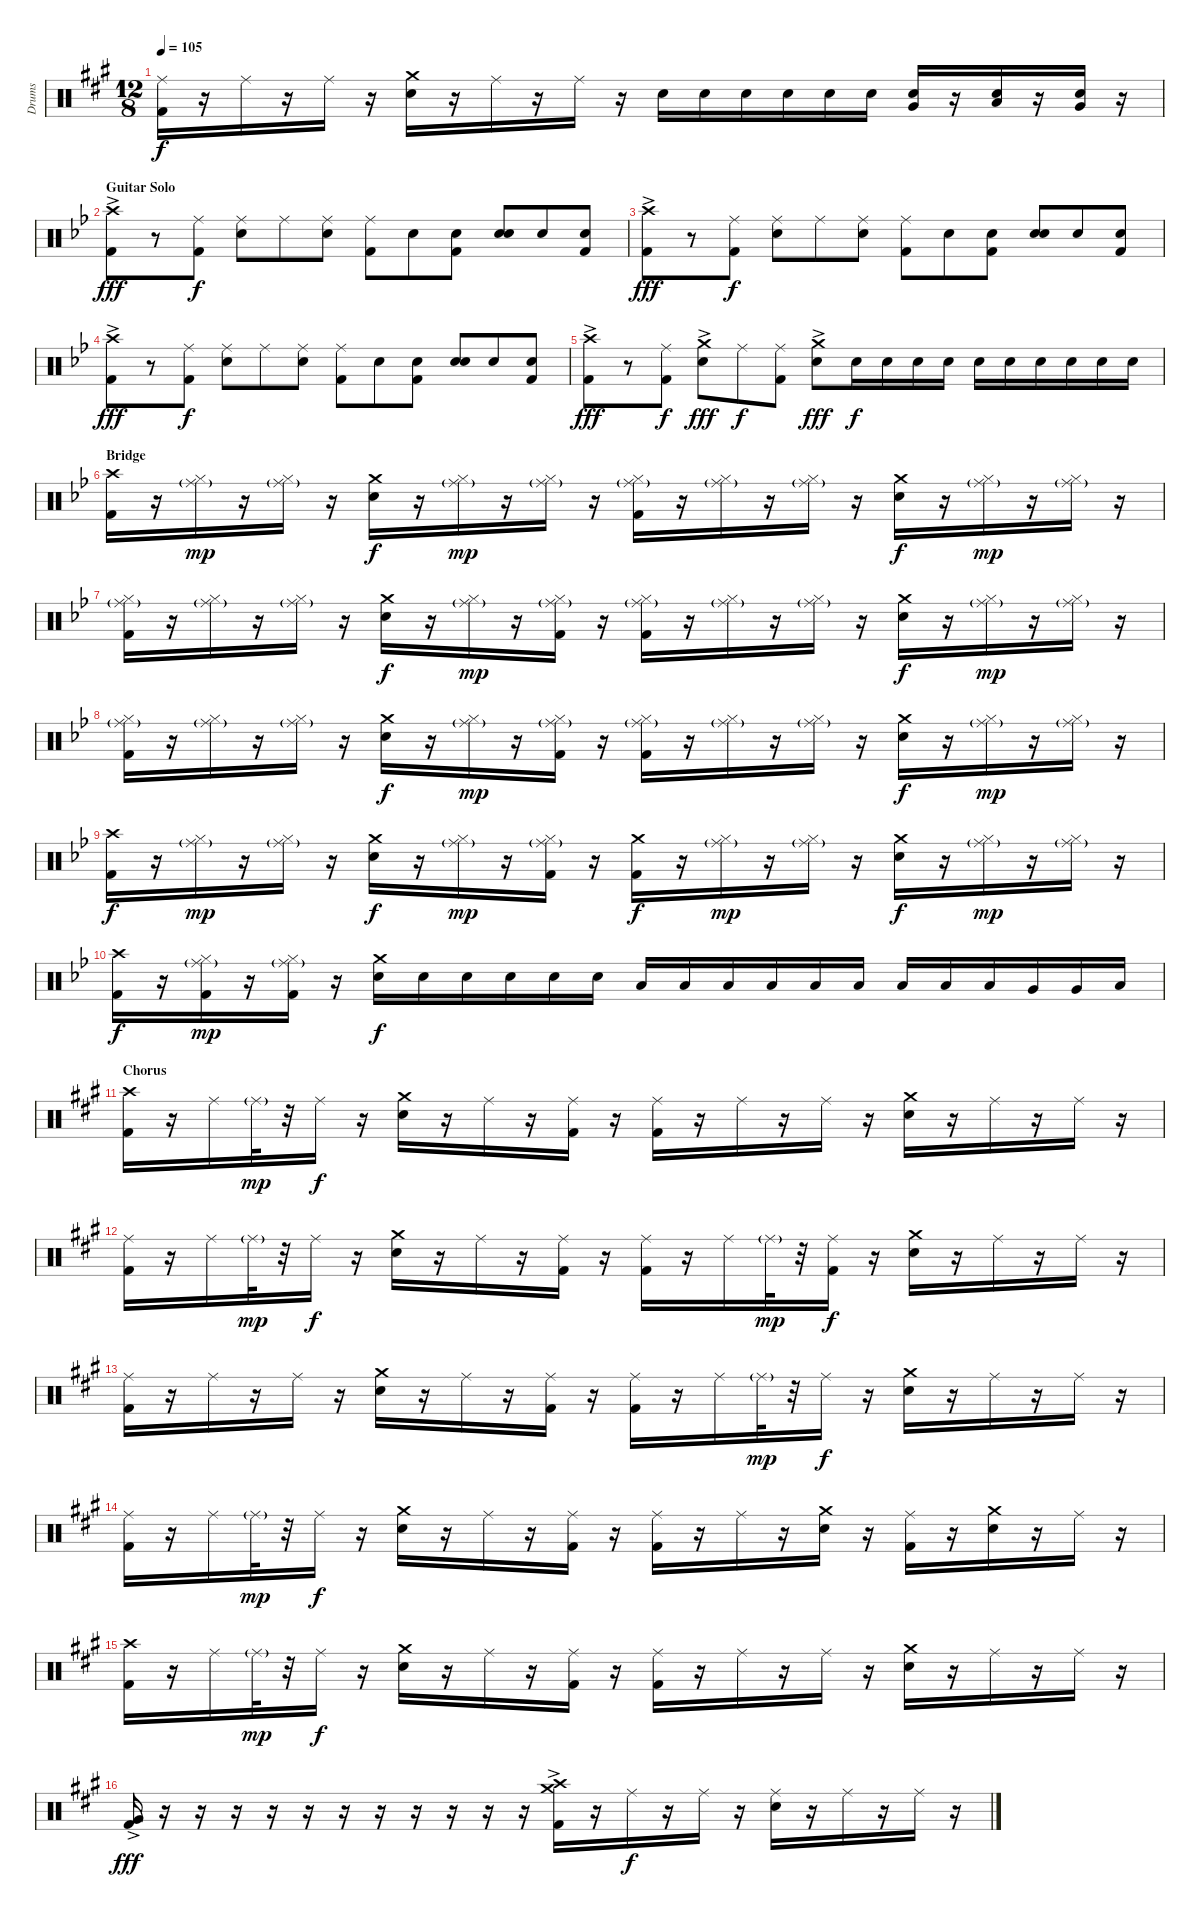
\track ("Drums" "Drums") {instrument percussion}
\staff {score}
\articulation defaults
\ts (12 8)
\tempo 105
\clef neutral
\ks a
("Ride (middle)" "Kick (hit) 2").16{dy f} r.16 "Ride (middle)".16 r.16 "Ride (middle)".16 r.16 ("Crash medium (hit)" "Snare (hit) 2").16 r.16 "Ride (middle)".16 r.16 "Ride (middle)".16 r.16 "Electric Snare (hit)".16 "Electric Snare (hit)".16 "Electric Snare (hit)".16 "Electric Snare (hit)".16 "Electric Snare (hit)".16 "Electric Snare (hit)".16 ("Very Low Tom (hit)" "Snare (hit) 2").16 r.16 ("Low Tom (hit)" "Snare (hit) 2").16 r.16 ("Very Low Tom (hit)" "Snare (hit) 2").16 r.16 |
\section ("" "Guitar Solo")
\ks bb
("Crash high (hit)"{ac} "Kick (hit) 2"{ac}).8{dy fff} r.8 ("Ride (middle)" "Kick (hit) 2").8{dy f} ("Ride (middle)" "Snare (hit) 2").8 "Ride (middle)".8 ("Ride (middle)" "Snare (hit) 2").8 ("Ride (middle)" "Kick (hit) 2").8 "Snare (hit) 2".8 ("Snare (hit) 2" "Kick (hit) 2").8 ("Electric Snare (hit)" "Snare (hit) 2").8 "Snare (hit) 2".8 ("Snare (hit) 2" "Kick (hit) 2").8 |
("Crash high (hit)"{ac} "Kick (hit) 2"{ac}).8{dy fff} r.8 ("Ride (middle)" "Kick (hit) 2").8{dy f} ("Ride (middle)" "Snare (hit) 2").8 "Ride (middle)".8 ("Ride (middle)" "Snare (hit) 2").8 ("Ride (middle)" "Kick (hit) 2").8 "Snare (hit) 2".8 ("Snare (hit) 2" "Kick (hit) 2").8 ("Electric Snare (hit)" "Snare (hit) 2").8 "Snare (hit) 2".8 ("Snare (hit) 2" "Kick (hit) 2").8 |
("Crash high (hit)"{ac} "Kick (hit) 2"{ac}).8{dy fff} r.8 ("Ride (middle)" "Kick (hit) 2").8{dy f} ("Ride (middle)" "Snare (hit) 2").8 "Ride (middle)".8 ("Ride (middle)" "Snare (hit) 2").8 ("Ride (middle)" "Kick (hit) 2").8 "Snare (hit) 2".8 ("Snare (hit) 2" "Kick (hit) 2").8 ("Electric Snare (hit)" "Snare (hit) 2").8 "Snare (hit) 2".8 ("Snare (hit) 2" "Kick (hit) 2").8 |
("Crash high (hit)"{ac} "Kick (hit) 2"{ac}).8{dy fff} r.8 ("Ride (middle)" "Kick (hit) 2").8{dy f} ("Crash medium (hit)" "Snare (hit) 2"{ac}).8{dy fff} "Ride (middle)".8{dy f} ("Ride (middle)" "Kick (hit) 2").8 ("Crash medium (hit)" "Snare (hit) 2"{ac}).8{dy fff} "Electric Snare (hit)".16{dy f} "Electric Snare (hit)".16 "Electric Snare (hit)".16 "Electric Snare (hit)".16 "Electric Snare (hit)".16 "Electric Snare (hit)".16 "Electric Snare (hit)".16 "Electric Snare (hit)".16 "Electric Snare (hit)".16 "Electric Snare (hit)".16 |
\section ("" "Bridge")
("Crash high (hit)" "Kick (hit) 2").16 r.16 ("Hi-Hat (closed)" "Ride (middle)"{g}).16{dy mp} r.16 ("Hi-Hat (closed)" "Ride (middle)"{g}).16 r.16 ("Crash medium (hit)" "Snare (hit) 2").16{dy f} r.16 ("Hi-Hat (closed)" "Ride (middle)"{g}).16{dy mp} r.16 ("Hi-Hat (closed)" "Ride (middle)"{g}).16 r.16 ("Hi-Hat (closed)" "Ride (middle)"{g} "Kick (hit) 2").16 r.16 ("Hi-Hat (closed)" "Ride (middle)"{g}).16 r.16 ("Hi-Hat (closed)" "Ride (middle)"{g}).16 r.16 ("Crash medium (hit)" "Snare (hit) 2").16{dy f} r.16 ("Hi-Hat (closed)" "Ride (middle)"{g}).16{dy mp} r.16 ("Hi-Hat (closed)" "Ride (middle)"{g}).16 r.16 |
("Hi-Hat (closed)" "Ride (middle)"{g} "Kick (hit) 2").16 r.16 ("Hi-Hat (closed)" "Ride (middle)"{g}).16 r.16 ("Hi-Hat (closed)" "Ride (middle)"{g}).16 r.16 ("Crash medium (hit)" "Snare (hit) 2").16{dy f} r.16 ("Hi-Hat (closed)" "Ride (middle)"{g}).16{dy mp} r.16 ("Hi-Hat (closed)" "Ride (middle)"{g} "Kick (hit) 2").16 r.16 ("Hi-Hat (closed)" "Ride (middle)"{g} "Kick (hit) 2").16 r.16 ("Hi-Hat (closed)" "Ride (middle)"{g}).16 r.16 ("Hi-Hat (closed)" "Ride (middle)"{g}).16 r.16 ("Crash medium (hit)" "Snare (hit) 2").16{dy f} r.16 ("Hi-Hat (closed)" "Ride (middle)"{g}).16{dy mp} r.16 ("Hi-Hat (closed)" "Ride (middle)"{g}).16 r.16 |
("Hi-Hat (closed)" "Ride (middle)"{g} "Kick (hit) 2").16 r.16 ("Hi-Hat (closed)" "Ride (middle)"{g}).16 r.16 ("Hi-Hat (closed)" "Ride (middle)"{g}).16 r.16 ("Crash medium (hit)" "Snare (hit) 2").16{dy f} r.16 ("Hi-Hat (closed)" "Ride (middle)"{g}).16{dy mp} r.16 ("Hi-Hat (closed)" "Ride (middle)"{g} "Kick (hit) 2").16 r.16 ("Hi-Hat (closed)" "Ride (middle)"{g} "Kick (hit) 2").16 r.16 ("Hi-Hat (closed)" "Ride (middle)"{g}).16 r.16 ("Hi-Hat (closed)" "Ride (middle)"{g}).16 r.16 ("Crash medium (hit)" "Snare (hit) 2").16{dy f} r.16 ("Hi-Hat (closed)" "Ride (middle)"{g}).16{dy mp} r.16 ("Hi-Hat (closed)" "Ride (middle)"{g}).16 r.16 |
("Crash high (hit)" "Kick (hit) 2").16{dy f} r.16 ("Hi-Hat (closed)" "Ride (middle)"{g}).16{dy mp} r.16 ("Hi-Hat (closed)" "Ride (middle)"{g}).16 r.16 ("Crash medium (hit)" "Snare (hit) 2").16{dy f} r.16 ("Hi-Hat (closed)" "Ride (middle)"{g}).16{dy mp} r.16 ("Hi-Hat (closed)" "Ride (middle)"{g} "Kick (hit) 2").16 r.16 ("Crash medium (hit)" "Kick (hit) 2").16{dy f} r.16 ("Hi-Hat (closed)" "Ride (middle)"{g}).16{dy mp} r.16 ("Hi-Hat (closed)" "Ride (middle)"{g}).16 r.16 ("Crash medium (hit)" "Snare (hit) 2").16{dy f} r.16 ("Hi-Hat (closed)" "Ride (middle)"{g}).16{dy mp} r.16 ("Hi-Hat (closed)" "Ride (middle)"{g}).16 r.16 |
("Crash high (hit)" "Kick (hit) 2").16{dy f} r.16 ("Hi-Hat (closed)" "Ride (middle)"{g} "Kick (hit) 2").16{dy mp} r.16 ("Hi-Hat (closed)" "Ride (middle)"{g} "Kick (hit) 2").16 r.16 ("Crash medium (hit)" "Snare (hit) 2").16{dy f} "Electric Snare (hit)".16 "Electric Snare (hit)".16 "Electric Snare (hit)".16 "Electric Snare (hit)".16 "Electric Snare (hit)".16 "Low Tom (hit)".16 "Low Tom (hit)".16 "Low Tom (hit)".16 "Low Tom (hit)".16 "Low Tom (hit)".16 "Low Floor Tom (hit)".16 "Low Floor Tom (hit)".16 "Low Floor Tom (hit)".16 "Low Floor Tom (hit)".16 "Very Low Tom (hit)".16 "Very Low Tom (hit)".16 "Low Floor Tom (hit)".16 |
\section ("" "Chorus")
\ks a
("Crash high (hit)" "Kick (hit) 2").16 r.16 "Ride (middle)".16 "Ride (middle)"{g}.32{dy mp} r.32 "Ride (middle)".16{dy f} r.16 ("Crash medium (hit)" "Snare (hit) 2").16 r.16 "Ride (middle)".16 r.16 ("Ride (middle)" "Kick (hit) 2").16 r.16 ("Ride (middle)" "Kick (hit) 2").16 r.16 "Ride (middle)".16 r.16 "Ride (middle)".16 r.16 ("Crash medium (hit)" "Snare (hit) 2").16 r.16 "Ride (middle)".16 r.16 "Ride (middle)".16 r.16 |
("Ride (middle)" "Kick (hit) 2").16 r.16 "Ride (middle)".16 "Ride (middle)"{g}.32{dy mp} r.32 "Ride (middle)".16{dy f} r.16 ("Crash medium (hit)" "Snare (hit) 2").16 r.16 "Ride (middle)".16 r.16 ("Ride (middle)" "Kick (hit) 2").16 r.16 ("Ride (middle)" "Kick (hit) 2").16 r.16 "Ride (middle)".16 "Ride (middle)"{g}.32{dy mp} r.32 ("Ride (middle)" "Kick (hit) 2").16{dy f} r.16 ("Crash medium (hit)" "Snare (hit) 2").16 r.16 "Ride (middle)".16 r.16 "Ride (middle)".16 r.16 |
("Ride (middle)" "Kick (hit) 2").16 r.16 "Ride (middle)".16 r.16 "Ride (middle)".16 r.16 ("Crash medium (hit)" "Snare (hit) 2").16 r.16 "Ride (middle)".16 r.16 ("Ride (middle)" "Kick (hit) 2").16 r.16 ("Ride (middle)" "Kick (hit) 2").16 r.16 "Ride (middle)".16 "Ride (middle)"{g}.32{dy mp} r.32 "Ride (middle)".16{dy f} r.16 ("Crash medium (hit)" "Snare (hit) 2").16 r.16 "Ride (middle)".16 r.16 "Ride (middle)".16 r.16 |
("Ride (middle)" "Kick (hit) 2").16 r.16 "Ride (middle)".16 "Ride (middle)"{g}.32{dy mp} r.32 "Ride (middle)".16{dy f} r.16 ("Crash medium (hit)" "Snare (hit) 2").16 r.16 "Ride (middle)".16 r.16 ("Ride (middle)" "Kick (hit) 2").16 r.16 ("Ride (middle)" "Kick (hit) 2").16 r.16 "Ride (middle)".16 r.16 ("Crash medium (hit)" "Snare (hit) 2").16 r.16 ("Ride (middle)" "Kick (hit) 2").16 r.16 ("Crash medium (hit)" "Snare (hit) 2").16 r.16 "Ride (middle)".16 r.16 |
("Crash high (hit)" "Kick (hit) 2").16 r.16 "Ride (middle)".16 "Ride (middle)"{g}.32{dy mp} r.32 "Ride (middle)".16{dy f} r.16 ("Crash medium (hit)" "Snare (hit) 2").16 r.16 "Ride (middle)".16 r.16 ("Ride (middle)" "Kick (hit) 2").16 r.16 ("Ride (middle)" "Kick (hit) 2").16 r.16 "Ride (middle)".16 r.16 "Ride (middle)".16 r.16 ("Crash medium (hit)" "Snare (hit) 2").16 r.16 "Ride (middle)".16 r.16 "Ride (middle)".16 r.16 |
("Very Low Tom (hit)"{ac} "Kick (hit) 2"{ac}).16{dy fff} r.16 r.16 r.16 r.16 r.16 r.16 r.16 r.16 r.16 r.16 r.16 ("Crash high (hit)"{ac} "Crash medium (hit)"{ac} "Kick (hit) 2"{ac}).16 r.16 "Ride (middle)".16{dy f} r.16 "Ride (middle)".16 r.16 ("Ride (middle)" "Snare (hit) 2").16 r.16 "Ride (middle)".16 r.16 "Ride (middle)".16 r.16
